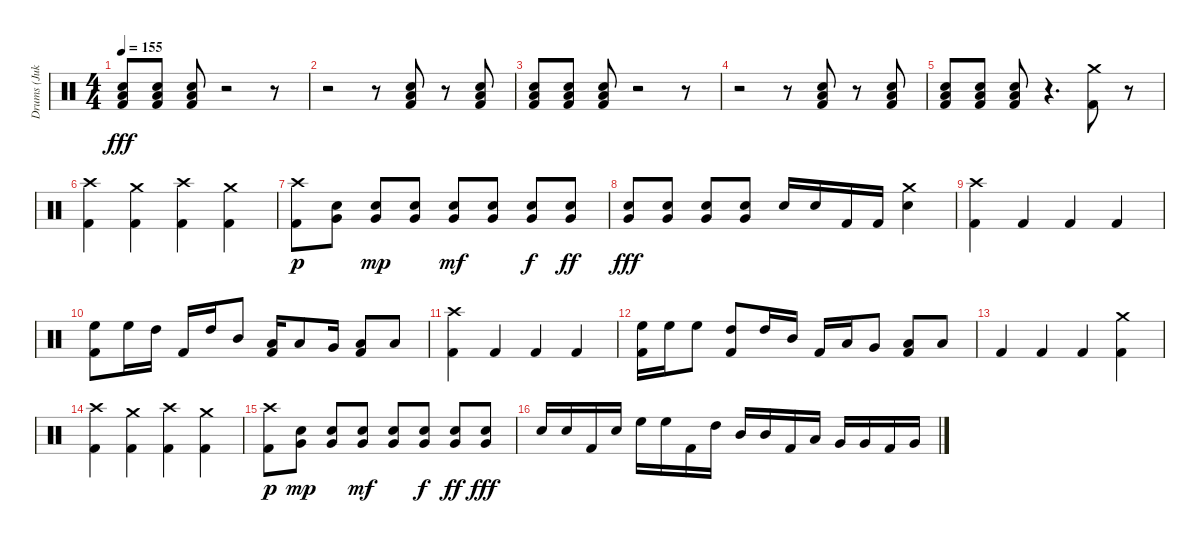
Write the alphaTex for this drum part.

\track ("Drums (Jukka)" "Drums (Juk") {instrument percussion}
\staff {score}
\articulation defaults
\ts (4 4)
\tempo 155
\clef neutral
\ks c
("Kick (hit) 2" "Low Floor Tom (hit)" "Snare (hit) 2").8{dy fff} ("Low Floor Tom (hit)" "Kick (hit) 2" "Snare (hit) 2").8 ("Low Floor Tom (hit)" "Kick (hit) 2" "Snare (hit) 2").8 r.2 r.8 |
r.2 r.8 ("Kick (hit) 2" "Snare (hit) 2" "Low Floor Tom (hit)").8 r.8 ("Kick (hit) 2" "Snare (hit) 2" "Low Floor Tom (hit)").8 |
("Kick (hit) 2" "Low Floor Tom (hit)" "Snare (hit) 2").8 ("Low Floor Tom (hit)" "Kick (hit) 2" "Snare (hit) 2").8 ("Low Floor Tom (hit)" "Kick (hit) 2" "Snare (hit) 2").8 r.2 r.8 |
r.2 r.8 ("Kick (hit) 2" "Snare (hit) 2" "Low Floor Tom (hit)").8 r.8 ("Kick (hit) 2" "Snare (hit) 2" "Low Floor Tom (hit)").8 |
("Kick (hit) 2" "Low Floor Tom (hit)" "Snare (hit) 2").8 ("Low Floor Tom (hit)" "Kick (hit) 2" "Snare (hit) 2").8 ("Low Floor Tom (hit)" "Kick (hit) 2" "Snare (hit) 2").8 r.4{d} ("Kick (hit) 2" "Crash medium (hit)").8 r.8 |
("Kick (hit) 2" "Crash high (hit)").4 ("Kick (hit) 2" "Crash medium (hit)").4 ("Kick (hit) 2" "Crash high (hit)").4 ("Kick (hit) 2" "Crash medium (hit)").4 |
("Kick (hit) 2" "Crash high (hit)").8{dy p} ("Snare (hit) 2" "Very Low Tom (hit)").8 ("Snare (hit) 2" "Very Low Tom (hit)").8{dy mp} ("Snare (hit) 2" "Very Low Tom (hit)").8 ("Snare (hit) 2" "Very Low Tom (hit)").8{dy mf} ("Snare (hit) 2" "Very Low Tom (hit)").8 ("Snare (hit) 2" "Very Low Tom (hit)").8{dy f} ("Snare (hit) 2" "Very Low Tom (hit)").8{dy ff} |
("Snare (hit) 2" "Very Low Tom (hit)").8{dy fff} ("Snare (hit) 2" "Very Low Tom (hit)").8 ("Snare (hit) 2" "Very Low Tom (hit)").8 ("Snare (hit) 2" "Very Low Tom (hit)").8 "Snare (hit) 2".16 "Snare (hit) 2".16 "Kick (hit) 2".16 "Kick (hit) 2".16 ("Snare (hit) 2" "Crash medium (hit)").4 |
("Kick (hit) 2" "Crash high (hit)").4 "Kick (hit) 2".4 "Kick (hit) 2".4 "Kick (hit) 2".4 |
("Kick (hit) 2" "High Floor Tom (hit)").8 "High Floor Tom (hit)".16 "High Tom (hit)".16 "Kick (hit) 2".16 "High Tom (hit)".16 "Mid Tom (hit)".8 ("Kick (hit) 2" "Low Tom (hit)").16 "Low Tom (hit)".8 "Very Low Tom (hit)".16 ("Kick (hit) 2" "Low Floor Tom (hit)").8 "Low Floor Tom (hit)".8 |
("Kick (hit) 2" "Crash high (hit)").4 "Kick (hit) 2".4 "Kick (hit) 2".4 "Kick (hit) 2".4 |
("Kick (hit) 2" "High Floor Tom (hit)").16 "High Floor Tom (hit)".16 "High Floor Tom (hit)".8 ("Kick (hit) 2" "High Tom (hit)").8 "High Tom (hit)".16 "Mid Tom (hit)".16 "Kick (hit) 2".16 "Low Tom (hit)".16 "Very Low Tom (hit)".8 ("Kick (hit) 2" "Low Floor Tom (hit)").8 "Low Floor Tom (hit)".8 |
"Kick (hit) 2".4 "Kick (hit) 2".4 "Kick (hit) 2".4 ("Kick (hit) 2" "Crash medium (hit)").4 |
("Kick (hit) 2" "Crash high (hit)").4 ("Kick (hit) 2" "Crash medium (hit)").4 ("Kick (hit) 2" "Crash high (hit)").4 ("Kick (hit) 2" "Crash medium (hit)").4 |
("Kick (hit) 2" "Crash high (hit)").8{dy p} ("Snare (hit) 2" "Very Low Tom (hit)").8{dy mp} ("Snare (hit) 2" "Very Low Tom (hit)").8 ("Snare (hit) 2" "Very Low Tom (hit)").8{dy mf} ("Snare (hit) 2" "Very Low Tom (hit)").8 ("Snare (hit) 2" "Very Low Tom (hit)").8{dy f} ("Snare (hit) 2" "Very Low Tom (hit)").8{dy ff} ("Snare (hit) 2" "Very Low Tom (hit)").8{dy fff} |
"Snare (hit) 2".16 "Snare (hit) 2".16 "Kick (hit) 2".16 "Snare (hit) 2".16 "High Floor Tom (hit)".16 "High Floor Tom (hit)".16 "Kick (hit) 2".16 "High Tom (hit)".16 "Mid Tom (hit)".16 "Mid Tom (hit)".16 "Kick (hit) 2".16 "Low Tom (hit)".16 "Very Low Tom (hit)".16 "Very Low Tom (hit)".16 "Kick (hit) 2".16 "Very Low Tom (hit)".16
